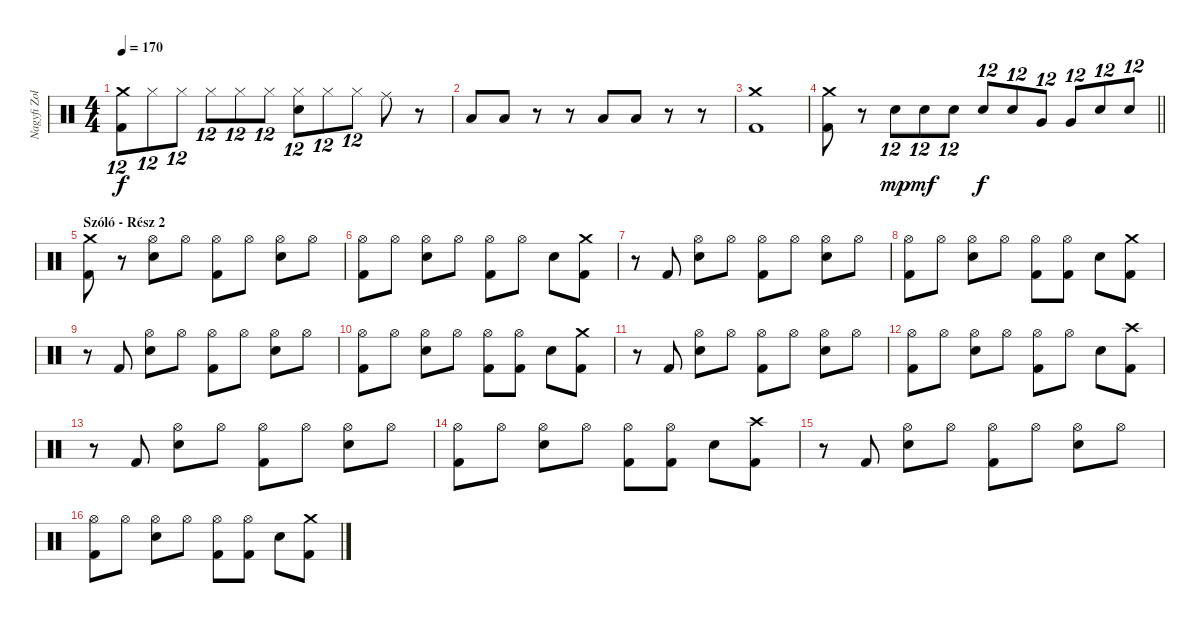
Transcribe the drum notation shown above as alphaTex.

\track ("Nagyfi Zoltán - Dob" "Nagyfi Zol") {instrument percussion}
\staff {score}
\articulation defaults
\ts (4 4)
\tempo 170
\clef neutral
\ks c
("Crash medium (hit)" "Kick (hit) 2").8{tu (12 8) dy f} "Hi-Hat (closed)".8{tu (12 8)} "Hi-Hat (closed)".8{tu (12 8)} "Hi-Hat (closed)".8{tu (12 8)} "Hi-Hat (closed)".8{tu (12 8)} "Hi-Hat (closed)".8{tu (12 8)} ("Hi-Hat (closed)" "Electric Snare (hit)").8{tu (12 8)} "Hi-Hat (closed)".8{tu (12 8)} "Hi-Hat (closed)".8{tu (12 8)} "Ride (middle)".8 r.8 |
"Low Tom (hit)".8 "Low Tom (hit)".8 r.8 r.8 "Low Tom (hit)".8 "Low Tom (hit)".8 r.8 r.8 |
("Crash medium (hit)" "Kick (hit) 2").1 |
\barLineRight lightlight
("Crash medium (hit)" "Kick (hit) 2").8 r.8 "Electric Snare (hit)".8{tu (12 8) dy mp} "Electric Snare (hit)".8{tu (12 8) dy mf} "Electric Snare (hit)".8{tu (12 8)} "Electric Snare (hit)".8{tu (12 8) dy f} "Electric Snare (hit)".8{tu (12 8)} "Very Low Tom (hit)".8{tu (12 8)} "Very Low Tom (hit)".8{tu (12 8)} "Electric Snare (hit)".8{tu (12 8)} "Electric Snare (hit)".8{tu (12 8)} |
\section ("" "Szóló - Rész 2")
("Crash medium (hit)" "Kick (hit) 2").8 r.8 ("Hi-Hat (open)" "Electric Snare (hit)").8 "Hi-Hat (open)".8 ("Hi-Hat (open)" "Kick (hit) 2").8 "Hi-Hat (open)".8 ("Hi-Hat (open)" "Electric Snare (hit)").8 "Hi-Hat (open)".8 |
("Hi-Hat (open)" "Kick (hit) 2").8 "Hi-Hat (open)".8 ("Hi-Hat (open)" "Electric Snare (hit)").8 "Hi-Hat (open)".8 ("Hi-Hat (open)" "Kick (hit) 2").8 "Hi-Hat (open)".8 "Electric Snare (hit)".8 ("Crash medium (hit)" "Kick (hit) 2").8 |
r.8 "Kick (hit) 2".8 ("Hi-Hat (open)" "Electric Snare (hit)").8 "Hi-Hat (open)".8 ("Hi-Hat (open)" "Kick (hit) 2").8 "Hi-Hat (open)".8 ("Hi-Hat (open)" "Electric Snare (hit)").8 "Hi-Hat (open)".8 |
("Hi-Hat (open)" "Kick (hit) 2").8 "Hi-Hat (open)".8 ("Hi-Hat (open)" "Electric Snare (hit)").8 "Hi-Hat (open)".8 ("Hi-Hat (open)" "Kick (hit) 2").8 ("Hi-Hat (open)" "Kick (hit) 2").8 "Electric Snare (hit)".8 ("Crash medium (hit)" "Kick (hit) 2").8 |
r.8 "Kick (hit) 2".8 ("Hi-Hat (open)" "Electric Snare (hit)").8 "Hi-Hat (open)".8 ("Hi-Hat (open)" "Kick (hit) 2").8 "Hi-Hat (open)".8 ("Hi-Hat (open)" "Electric Snare (hit)").8 "Hi-Hat (open)".8 |
("Hi-Hat (open)" "Kick (hit) 2").8 "Hi-Hat (open)".8 ("Hi-Hat (open)" "Electric Snare (hit)").8 "Hi-Hat (open)".8 ("Hi-Hat (open)" "Kick (hit) 2").8 ("Hi-Hat (open)" "Kick (hit) 2").8 "Electric Snare (hit)".8 ("Crash medium (hit)" "Kick (hit) 2").8 |
r.8 "Kick (hit) 2".8 ("Hi-Hat (open)" "Electric Snare (hit)").8 "Hi-Hat (open)".8 ("Hi-Hat (open)" "Kick (hit) 2").8 "Hi-Hat (open)".8 ("Hi-Hat (open)" "Electric Snare (hit)").8 "Hi-Hat (open)".8 |
("Hi-Hat (open)" "Kick (hit) 2").8 "Hi-Hat (open)".8 ("Hi-Hat (open)" "Electric Snare (hit)").8 "Hi-Hat (open)".8 ("Hi-Hat (open)" "Kick (hit) 2").8 "Hi-Hat (open)".8 "Electric Snare (hit)".8 ("Crash high (hit)" "Kick (hit) 2").8 |
r.8 "Kick (hit) 2".8 ("Hi-Hat (open)" "Electric Snare (hit)").8 "Hi-Hat (open)".8 ("Hi-Hat (open)" "Kick (hit) 2").8 "Hi-Hat (open)".8 ("Hi-Hat (open)" "Electric Snare (hit)").8 "Hi-Hat (open)".8 |
("Hi-Hat (open)" "Kick (hit) 2").8 "Hi-Hat (open)".8 ("Hi-Hat (open)" "Electric Snare (hit)").8 "Hi-Hat (open)".8 ("Hi-Hat (open)" "Kick (hit) 2").8 ("Hi-Hat (open)" "Kick (hit) 2").8 "Electric Snare (hit)".8 ("Crash high (hit)" "Kick (hit) 2").8 |
r.8 "Kick (hit) 2".8 ("Hi-Hat (open)" "Electric Snare (hit)").8 "Hi-Hat (open)".8 ("Hi-Hat (open)" "Kick (hit) 2").8 "Hi-Hat (open)".8 ("Hi-Hat (open)" "Electric Snare (hit)").8 "Hi-Hat (open)".8 |
("Hi-Hat (open)" "Kick (hit) 2").8 "Hi-Hat (open)".8 ("Hi-Hat (open)" "Electric Snare (hit)").8 "Hi-Hat (open)".8 ("Hi-Hat (open)" "Kick (hit) 2").8 ("Hi-Hat (open)" "Kick (hit) 2").8 "Electric Snare (hit)".8 ("Crash medium (hit)" "Kick (hit) 2").8
